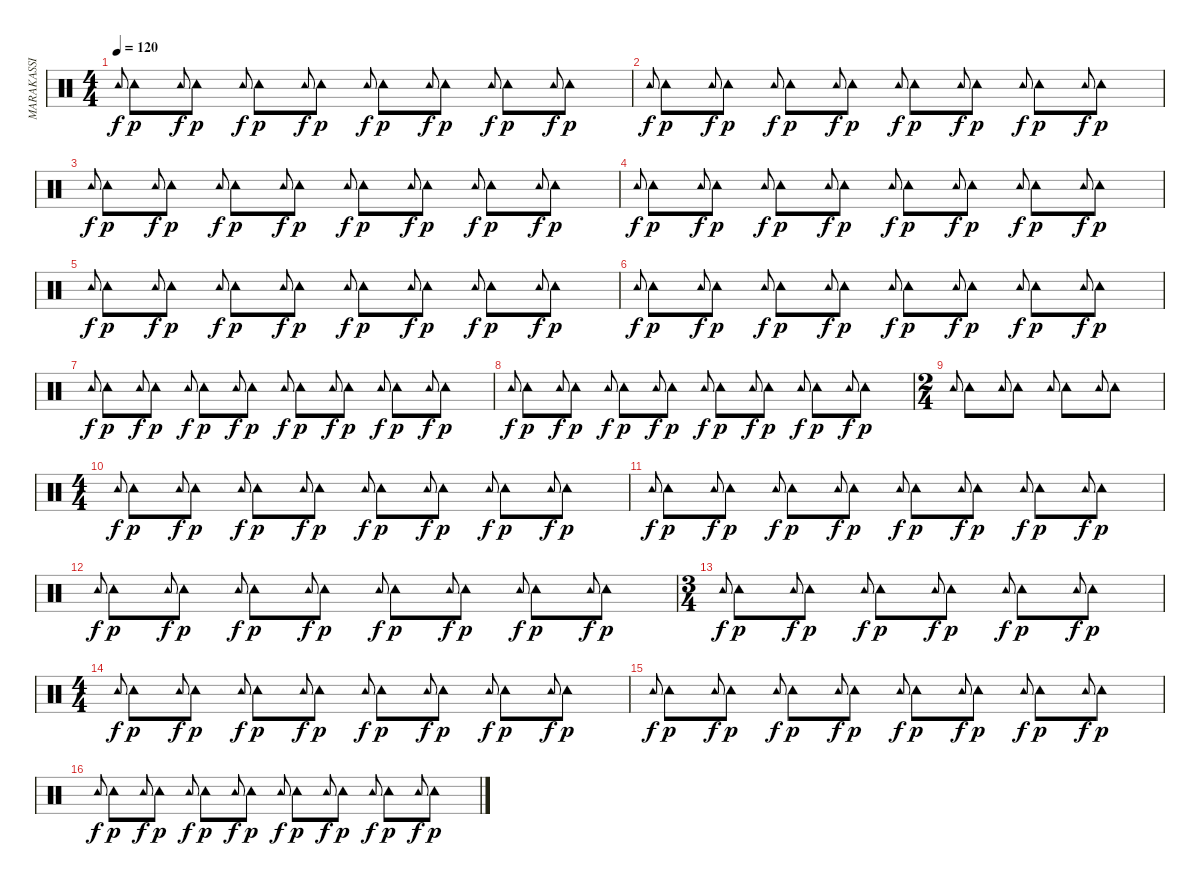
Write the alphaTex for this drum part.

\track ("MARAKASSI" "MARAKASSI") {instrument percussion}
\staff {score}
\articulation defaults
\ts (4 4)
\tempo 120
\clef neutral
\ks c "Tambourine (hit)".8{gr onbeat dy f} "Tambourine (hit)".8{dy p} "Tambourine (hit)".8{gr onbeat dy f} "Tambourine (hit)".8{dy p} "Tambourine (hit)".8{gr onbeat dy f} "Tambourine (hit)".8{dy p} "Tambourine (hit)".8{gr onbeat dy f} "Tambourine (hit)".8{dy p} "Tambourine (hit)".8{gr onbeat dy f} "Tambourine (hit)".8{dy p} "Tambourine (hit)".8{gr onbeat dy f} "Tambourine (hit)".8{dy p} "Tambourine (hit)".8{gr onbeat dy f} "Tambourine (hit)".8{dy p} "Tambourine (hit)".8{gr onbeat dy f} "Tambourine (hit)".8{dy p}
|
"Tambourine (hit)".8{gr onbeat dy f} "Tambourine (hit)".8{dy p} "Tambourine (hit)".8{gr onbeat dy f} "Tambourine (hit)".8{dy p} "Tambourine (hit)".8{gr onbeat dy f} "Tambourine (hit)".8{dy p} "Tambourine (hit)".8{gr onbeat dy f} "Tambourine (hit)".8{dy p} "Tambourine (hit)".8{gr onbeat dy f} "Tambourine (hit)".8{dy p} "Tambourine (hit)".8{gr onbeat dy f} "Tambourine (hit)".8{dy p} "Tambourine (hit)".8{gr onbeat dy f} "Tambourine (hit)".8{dy p} "Tambourine (hit)".8{gr onbeat dy f} "Tambourine (hit)".8{dy p} |
"Tambourine (hit)".8{gr onbeat dy f} "Tambourine (hit)".8{dy p} "Tambourine (hit)".8{gr onbeat dy f} "Tambourine (hit)".8{dy p} "Tambourine (hit)".8{gr onbeat dy f} "Tambourine (hit)".8{dy p} "Tambourine (hit)".8{gr onbeat dy f} "Tambourine (hit)".8{dy p} "Tambourine (hit)".8{gr onbeat dy f} "Tambourine (hit)".8{dy p} "Tambourine (hit)".8{gr onbeat dy f} "Tambourine (hit)".8{dy p} "Tambourine (hit)".8{gr onbeat dy f} "Tambourine (hit)".8{dy p} "Tambourine (hit)".8{gr onbeat dy f} "Tambourine (hit)".8{dy p} |
"Tambourine (hit)".8{gr onbeat dy f} "Tambourine (hit)".8{dy p} "Tambourine (hit)".8{gr onbeat dy f} "Tambourine (hit)".8{dy p} "Tambourine (hit)".8{gr onbeat dy f} "Tambourine (hit)".8{dy p} "Tambourine (hit)".8{gr onbeat dy f} "Tambourine (hit)".8{dy p} "Tambourine (hit)".8{gr onbeat dy f} "Tambourine (hit)".8{dy p} "Tambourine (hit)".8{gr onbeat dy f} "Tambourine (hit)".8{dy p} "Tambourine (hit)".8{gr onbeat dy f} "Tambourine (hit)".8{dy p} "Tambourine (hit)".8{gr onbeat dy f} "Tambourine (hit)".8{dy p} |
"Tambourine (hit)".8{gr onbeat dy f} "Tambourine (hit)".8{dy p} "Tambourine (hit)".8{gr onbeat dy f} "Tambourine (hit)".8{dy p} "Tambourine (hit)".8{gr onbeat dy f} "Tambourine (hit)".8{dy p} "Tambourine (hit)".8{gr onbeat dy f} "Tambourine (hit)".8{dy p} "Tambourine (hit)".8{gr onbeat dy f} "Tambourine (hit)".8{dy p} "Tambourine (hit)".8{gr onbeat dy f} "Tambourine (hit)".8{dy p} "Tambourine (hit)".8{gr onbeat dy f} "Tambourine (hit)".8{dy p} "Tambourine (hit)".8{gr onbeat dy f} "Tambourine (hit)".8{dy p} |
"Tambourine (hit)".8{gr onbeat dy f} "Tambourine (hit)".8{dy p} "Tambourine (hit)".8{gr onbeat dy f} "Tambourine (hit)".8{dy p} "Tambourine (hit)".8{gr onbeat dy f} "Tambourine (hit)".8{dy p} "Tambourine (hit)".8{gr onbeat dy f} "Tambourine (hit)".8{dy p} "Tambourine (hit)".8{gr onbeat dy f} "Tambourine (hit)".8{dy p} "Tambourine (hit)".8{gr onbeat dy f} "Tambourine (hit)".8{dy p} "Tambourine (hit)".8{gr onbeat dy f} "Tambourine (hit)".8{dy p} "Tambourine (hit)".8{gr onbeat dy f} "Tambourine (hit)".8{dy p} |
"Tambourine (hit)".8{gr onbeat dy f} "Tambourine (hit)".8{dy p} "Tambourine (hit)".8{gr onbeat dy f} "Tambourine (hit)".8{dy p} "Tambourine (hit)".8{gr onbeat dy f} "Tambourine (hit)".8{dy p} "Tambourine (hit)".8{gr onbeat dy f} "Tambourine (hit)".8{dy p} "Tambourine (hit)".8{gr onbeat dy f} "Tambourine (hit)".8{dy p} "Tambourine (hit)".8{gr onbeat dy f} "Tambourine (hit)".8{dy p} "Tambourine (hit)".8{gr onbeat dy f} "Tambourine (hit)".8{dy p} "Tambourine (hit)".8{gr onbeat dy f} "Tambourine (hit)".8{dy p} |
"Tambourine (hit)".8{gr onbeat dy f} "Tambourine (hit)".8{dy p} "Tambourine (hit)".8{gr onbeat dy f} "Tambourine (hit)".8{dy p} "Tambourine (hit)".8{gr onbeat dy f} "Tambourine (hit)".8{dy p} "Tambourine (hit)".8{gr onbeat dy f} "Tambourine (hit)".8{dy p} "Tambourine (hit)".8{gr onbeat dy f} "Tambourine (hit)".8{dy p} "Tambourine (hit)".8{gr onbeat dy f} "Tambourine (hit)".8{dy p} "Tambourine (hit)".8{gr onbeat dy f} "Tambourine (hit)".8{dy p} "Tambourine (hit)".8{gr onbeat dy f} "Tambourine (hit)".8{dy p} |
\ts (2 4)
"Tambourine (hit)".8{gr onbeat} "Tambourine (hit)".8 "Tambourine (hit)".8{gr onbeat} "Tambourine (hit)".8 "Tambourine (hit)".8{gr onbeat} "Tambourine (hit)".8 "Tambourine (hit)".8{gr onbeat} "Tambourine (hit)".8 |
\ts (4 4)
"Tambourine (hit)".8{gr onbeat dy f} "Tambourine (hit)".8{dy p} "Tambourine (hit)".8{gr onbeat dy f} "Tambourine (hit)".8{dy p} "Tambourine (hit)".8{gr onbeat dy f} "Tambourine (hit)".8{dy p} "Tambourine (hit)".8{gr onbeat dy f} "Tambourine (hit)".8{dy p} "Tambourine (hit)".8{gr onbeat dy f} "Tambourine (hit)".8{dy p} "Tambourine (hit)".8{gr onbeat dy f} "Tambourine (hit)".8{dy p} "Tambourine (hit)".8{gr onbeat dy f} "Tambourine (hit)".8{dy p} "Tambourine (hit)".8{gr onbeat dy f} "Tambourine (hit)".8{dy p} |
"Tambourine (hit)".8{gr onbeat dy f} "Tambourine (hit)".8{dy p} "Tambourine (hit)".8{gr onbeat dy f} "Tambourine (hit)".8{dy p} "Tambourine (hit)".8{gr onbeat dy f} "Tambourine (hit)".8{dy p} "Tambourine (hit)".8{gr onbeat dy f} "Tambourine (hit)".8{dy p} "Tambourine (hit)".8{gr onbeat dy f} "Tambourine (hit)".8{dy p} "Tambourine (hit)".8{gr onbeat dy f} "Tambourine (hit)".8{dy p} "Tambourine (hit)".8{gr onbeat dy f} "Tambourine (hit)".8{dy p} "Tambourine (hit)".8{gr onbeat dy f} "Tambourine (hit)".8{dy p} |
"Tambourine (hit)".8{gr onbeat dy f} "Tambourine (hit)".8{dy p} "Tambourine (hit)".8{gr onbeat dy f} "Tambourine (hit)".8{dy p} "Tambourine (hit)".8{gr onbeat dy f} "Tambourine (hit)".8{dy p} "Tambourine (hit)".8{gr onbeat dy f} "Tambourine (hit)".8{dy p} "Tambourine (hit)".8{gr onbeat dy f} "Tambourine (hit)".8{dy p} "Tambourine (hit)".8{gr onbeat dy f} "Tambourine (hit)".8{dy p} "Tambourine (hit)".8{gr onbeat dy f} "Tambourine (hit)".8{dy p} "Tambourine (hit)".8{gr onbeat dy f} "Tambourine (hit)".8{dy p} |
\ts (3 4)
"Tambourine (hit)".8{gr onbeat dy f} "Tambourine (hit)".8{dy p} "Tambourine (hit)".8{gr onbeat dy f} "Tambourine (hit)".8{dy p} "Tambourine (hit)".8{gr onbeat dy f} "Tambourine (hit)".8{dy p} "Tambourine (hit)".8{gr onbeat dy f} "Tambourine (hit)".8{dy p} "Tambourine (hit)".8{gr onbeat dy f} "Tambourine (hit)".8{dy p} "Tambourine (hit)".8{gr onbeat dy f} "Tambourine (hit)".8{dy p} |
\ts (4 4)
"Tambourine (hit)".8{gr onbeat dy f} "Tambourine (hit)".8{dy p} "Tambourine (hit)".8{gr onbeat dy f} "Tambourine (hit)".8{dy p} "Tambourine (hit)".8{gr onbeat dy f} "Tambourine (hit)".8{dy p} "Tambourine (hit)".8{gr onbeat dy f} "Tambourine (hit)".8{dy p} "Tambourine (hit)".8{gr onbeat dy f} "Tambourine (hit)".8{dy p} "Tambourine (hit)".8{gr onbeat dy f} "Tambourine (hit)".8{dy p} "Tambourine (hit)".8{gr onbeat dy f} "Tambourine (hit)".8{dy p} "Tambourine (hit)".8{gr onbeat dy f} "Tambourine (hit)".8{dy p} |
"Tambourine (hit)".8{gr onbeat dy f} "Tambourine (hit)".8{dy p} "Tambourine (hit)".8{gr onbeat dy f} "Tambourine (hit)".8{dy p} "Tambourine (hit)".8{gr onbeat dy f} "Tambourine (hit)".8{dy p} "Tambourine (hit)".8{gr onbeat dy f} "Tambourine (hit)".8{dy p} "Tambourine (hit)".8{gr onbeat dy f} "Tambourine (hit)".8{dy p} "Tambourine (hit)".8{gr onbeat dy f} "Tambourine (hit)".8{dy p} "Tambourine (hit)".8{gr onbeat dy f} "Tambourine (hit)".8{dy p} "Tambourine (hit)".8{gr onbeat dy f} "Tambourine (hit)".8{dy p} |
"Tambourine (hit)".8{gr onbeat dy f} "Tambourine (hit)".8{dy p} "Tambourine (hit)".8{gr onbeat dy f} "Tambourine (hit)".8{dy p} "Tambourine (hit)".8{gr onbeat dy f} "Tambourine (hit)".8{dy p} "Tambourine (hit)".8{gr onbeat dy f} "Tambourine (hit)".8{dy p} "Tambourine (hit)".8{gr onbeat dy f} "Tambourine (hit)".8{dy p} "Tambourine (hit)".8{gr onbeat dy f} "Tambourine (hit)".8{dy p} "Tambourine (hit)".8{gr onbeat dy f} "Tambourine (hit)".8{dy p} "Tambourine (hit)".8{gr onbeat dy f} "Tambourine (hit)".8{dy p}
